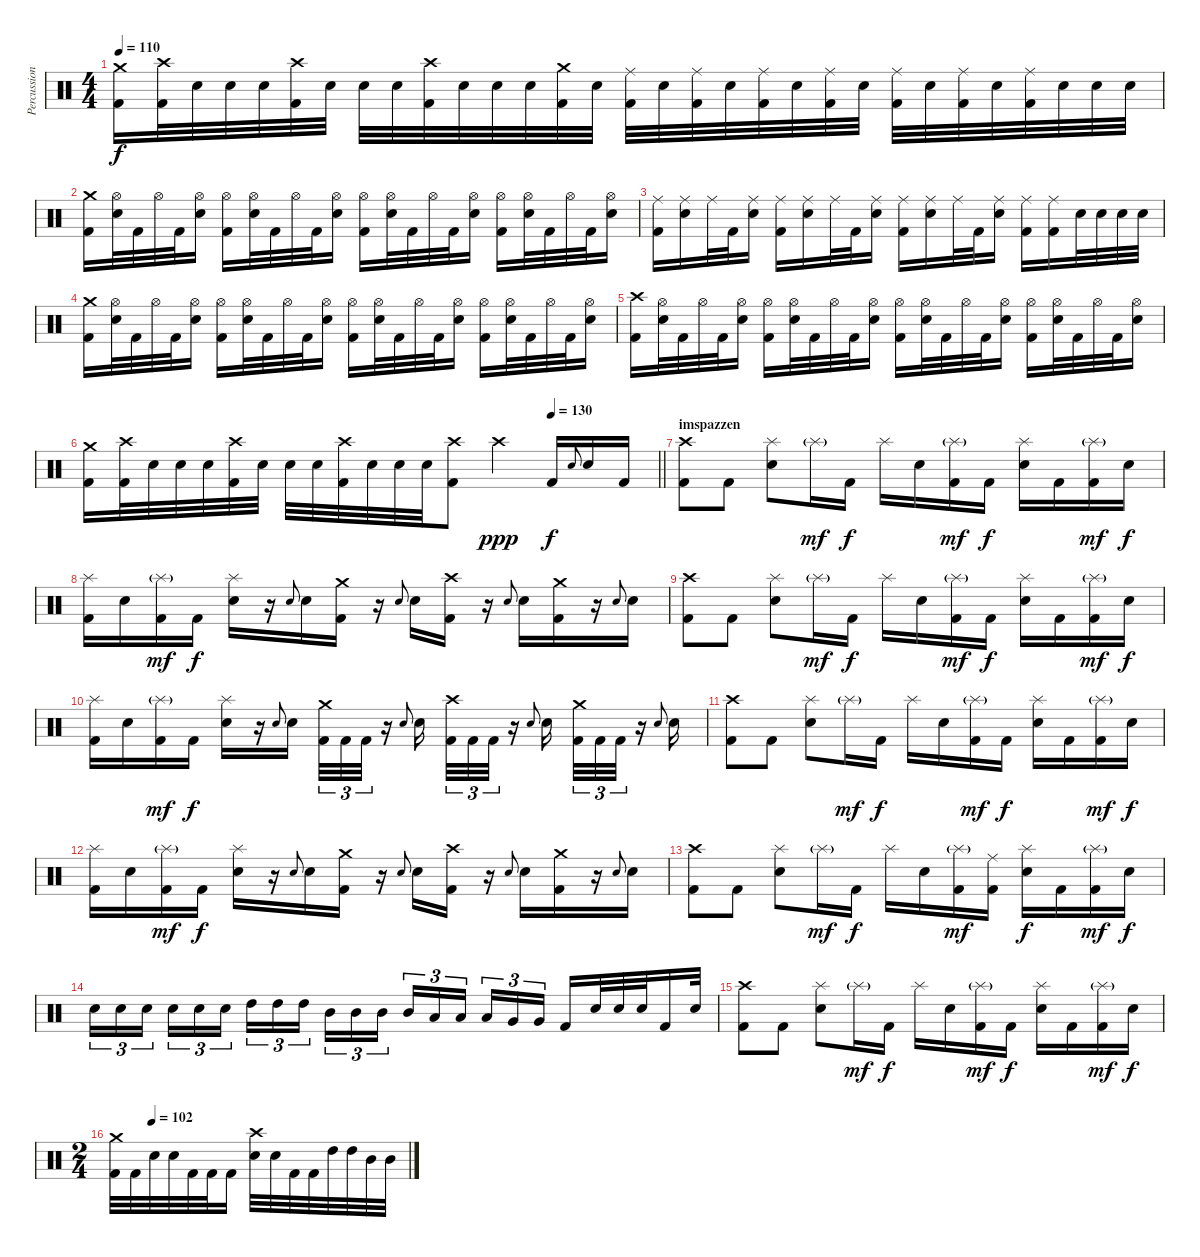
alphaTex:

\track ("Percussion" "Percussion") {instrument percussion}
\staff {score}
\articulation defaults
\ts (4 4)
\tempo 110
\clef neutral
\ks c
("Crash medium (hit)" "Kick (hit) 2").16{dy f} ("Crash high (hit)" "Kick (hit) 2").32 "Electric Snare (hit)".32 "Electric Snare (hit)".32 "Electric Snare (hit)".32 ("Crash high (hit)" "Kick (hit) 2").32 "Electric Snare (hit)".32 "Electric Snare (hit)".32 "Electric Snare (hit)".32 ("Crash high (hit)" "Kick (hit) 2").32 "Electric Snare (hit)".32 "Electric Snare (hit)".32 "Electric Snare (hit)".32 ("Crash medium (hit)" "Kick (hit) 2").32 "Electric Snare (hit)".32 ("Ride (middle)" "Kick (hit) 2").32 "Electric Snare (hit)".32 ("Ride (middle)" "Kick (hit) 2").32 "Electric Snare (hit)".32 ("Ride (middle)" "Kick (hit) 2").32 "Electric Snare (hit)".32 ("Ride (middle)" "Kick (hit) 2").32 "Electric Snare (hit)".32 ("Ride (middle)" "Kick (hit) 2").32 "Electric Snare (hit)".32 ("Ride (middle)" "Kick (hit) 2").32 "Electric Snare (hit)".32 ("Ride (middle)" "Kick (hit) 2").32 "Electric Snare (hit)".32 "Electric Snare (hit)".32 "Electric Snare (hit)".32 |
("Crash medium (hit)" "Kick (hit) 2").16 ("Hi-Hat (open)" "Electric Snare (hit)").32 "Kick (hit) 2".32 "Hi-Hat (open)".32 "Kick (hit) 2".32 ("Hi-Hat (open)" "Electric Snare (hit)").16 ("Hi-Hat (open)" "Kick (hit) 2").16 ("Hi-Hat (open)" "Electric Snare (hit)").32 "Kick (hit) 2".32 "Hi-Hat (open)".32 "Kick (hit) 2".32 ("Hi-Hat (open)" "Electric Snare (hit)").16 ("Hi-Hat (open)" "Kick (hit) 2").16 ("Hi-Hat (open)" "Electric Snare (hit)").32 "Kick (hit) 2".32 "Hi-Hat (open)".32 "Kick (hit) 2".32 ("Hi-Hat (open)" "Electric Snare (hit)").16 ("Hi-Hat (open)" "Kick (hit) 2").16 ("Hi-Hat (open)" "Electric Snare (hit)").32 "Kick (hit) 2".32 "Hi-Hat (open)".32 "Kick (hit) 2".32 ("Hi-Hat (open)" "Electric Snare (hit)").16 |
("Ride (middle)" "Kick (hit) 2").16 ("Ride (middle)" "Electric Snare (hit)").16 "Ride (middle)".32 "Kick (hit) 2".32 ("Ride (middle)" "Electric Snare (hit)").16 ("Ride (middle)" "Kick (hit) 2").16 ("Ride (middle)" "Electric Snare (hit)").16 "Ride (middle)".32 "Kick (hit) 2".32 ("Ride (middle)" "Electric Snare (hit)").16 ("Ride (middle)" "Kick (hit) 2").16 ("Ride (middle)" "Electric Snare (hit)").16 "Ride (middle)".32 "Kick (hit) 2".32 ("Ride (middle)" "Electric Snare (hit)").16 ("Ride (middle)" "Kick (hit) 2").16 ("Ride (middle)" "Kick (hit) 2").16 "Electric Snare (hit)".32 "Electric Snare (hit)".32 "Electric Snare (hit)".32 "Electric Snare (hit)".32 |
("Crash medium (hit)" "Kick (hit) 2").16 ("Hi-Hat (open)" "Electric Snare (hit)").32 "Kick (hit) 2".32 "Hi-Hat (open)".32 "Kick (hit) 2".32 ("Hi-Hat (open)" "Electric Snare (hit)").16 ("Hi-Hat (open)" "Kick (hit) 2").16 ("Hi-Hat (open)" "Electric Snare (hit)").32 "Kick (hit) 2".32 "Hi-Hat (open)".32 "Kick (hit) 2".32 ("Hi-Hat (open)" "Electric Snare (hit)").16 ("Hi-Hat (open)" "Kick (hit) 2").16 ("Hi-Hat (open)" "Electric Snare (hit)").32 "Kick (hit) 2".32 "Hi-Hat (open)".32 "Kick (hit) 2".32 ("Hi-Hat (open)" "Electric Snare (hit)").16 ("Hi-Hat (open)" "Kick (hit) 2").16 ("Hi-Hat (open)" "Electric Snare (hit)").32 "Kick (hit) 2".32 "Hi-Hat (open)".32 "Kick (hit) 2".32 ("Hi-Hat (open)" "Electric Snare (hit)").16 |
("Crash high (hit)" "Kick (hit) 2").16 ("Hi-Hat (open)" "Electric Snare (hit)").32 "Kick (hit) 2".32 "Hi-Hat (open)".32 "Kick (hit) 2".32 ("Hi-Hat (open)" "Electric Snare (hit)").16 ("Hi-Hat (open)" "Kick (hit) 2").16 ("Hi-Hat (open)" "Electric Snare (hit)").32 "Kick (hit) 2".32 "Hi-Hat (open)".32 "Kick (hit) 2".32 ("Hi-Hat (open)" "Electric Snare (hit)").16 ("Hi-Hat (open)" "Kick (hit) 2").16 ("Hi-Hat (open)" "Electric Snare (hit)").32 "Kick (hit) 2".32 "Hi-Hat (open)".32 "Kick (hit) 2".32 ("Hi-Hat (open)" "Electric Snare (hit)").16 ("Hi-Hat (open)" "Kick (hit) 2").16 ("Hi-Hat (open)" "Electric Snare (hit)").32 "Kick (hit) 2".32 "Hi-Hat (open)".32 "Kick (hit) 2".32 ("Hi-Hat (open)" "Electric Snare (hit)").16 |
\tempo (130 0.8125)
\barLineRight lightlight
("Crash medium (hit)" "Kick (hit) 2").16 ("Crash high (hit)" "Kick (hit) 2").32 "Electric Snare (hit)".32 "Electric Snare (hit)".32 "Electric Snare (hit)".32 ("Crash high (hit)" "Kick (hit) 2").32 "Electric Snare (hit)".32 "Electric Snare (hit)".32 "Electric Snare (hit)".32 ("Crash high (hit)" "Kick (hit) 2").32 "Electric Snare (hit)".32 "Electric Snare (hit)".32 "Electric Snare (hit)".32 ("Crash high (hit)" "Kick (hit) 2").8 "Crash high (hit)".4{dy ppp} "Kick (hit) 2".16{dy f} "Electric Snare (hit)".8{gr onbeat} "Electric Snare (hit)".16 "Kick (hit) 2".16 |
\section ("" "imspazzen")
("Crash high (hit)" "Kick (hit) 2").8 "Kick (hit) 2".8 ("Splash (hit)" "Electric Snare (hit)").8 "Splash (hit)"{g}.16{dy mf} "Kick (hit) 2".16{dy f} "Splash (hit)".16 "Electric Snare (hit)".16 ("Splash (hit)"{g} "Kick (hit) 2").16{dy mf} "Kick (hit) 2".16{dy f} ("Splash (hit)" "Electric Snare (hit)").16 "Kick (hit) 2".16 ("Splash (hit)"{g} "Kick (hit) 2").16{dy mf} "Electric Snare (hit)".16{dy f} |
("Splash (hit)" "Kick (hit) 2").16 "Electric Snare (hit)".16 ("Splash (hit)"{g} "Kick (hit) 2").16{dy mf} "Kick (hit) 2".16{dy f} ("Splash (hit)" "Electric Snare (hit)").16 r.16 "Electric Snare (hit)".8{gr onbeat} "Electric Snare (hit)".16 ("Crash medium (hit)" "Kick (hit) 2").16 r.16 "Electric Snare (hit)".8{gr onbeat} "Electric Snare (hit)".16 ("Crash high (hit)" "Kick (hit) 2").16 r.16 "Electric Snare (hit)".8{gr onbeat} "Electric Snare (hit)".16 ("Crash medium (hit)" "Kick (hit) 2").16 r.16 "Electric Snare (hit)".8{gr onbeat} "Electric Snare (hit)".16 |
("Crash high (hit)" "Kick (hit) 2").8 "Kick (hit) 2".8 ("Splash (hit)" "Electric Snare (hit)").8 "Splash (hit)"{g}.16{dy mf} "Kick (hit) 2".16{dy f} "Splash (hit)".16 "Electric Snare (hit)".16 ("Splash (hit)"{g} "Kick (hit) 2").16{dy mf} "Kick (hit) 2".16{dy f} ("Splash (hit)" "Electric Snare (hit)").16 "Kick (hit) 2".16 ("Splash (hit)"{g} "Kick (hit) 2").16{dy mf} "Electric Snare (hit)".16{dy f} |
("Splash (hit)" "Kick (hit) 2").16 "Electric Snare (hit)".16 ("Splash (hit)"{g} "Kick (hit) 2").16{dy mf} "Kick (hit) 2".16{dy f} ("Splash (hit)" "Electric Snare (hit)").16 r.16 "Electric Snare (hit)".8{gr onbeat} "Electric Snare (hit)".16{beam splitsecondary} ("Crash medium (hit)" "Kick (hit) 2").32{tu (3 2)} "Kick (hit) 2".32{tu (3 2)} "Kick (hit) 2".32{tu (3 2)} r.16 "Electric Snare (hit)".8{gr onbeat} "Electric Snare (hit)".16{beam splitsecondary} ("Crash high (hit)" "Kick (hit) 2").32{tu (3 2)} "Kick (hit) 2".32{tu (3 2)} "Kick (hit) 2".32{tu (3 2)} r.16 "Electric Snare (hit)".8{gr onbeat} "Electric Snare (hit)".16{beam splitsecondary} ("Crash medium (hit)" "Kick (hit) 2").32{tu (3 2)} "Kick (hit) 2".32{tu (3 2)} "Kick (hit) 2".32{tu (3 2)} r.16 "Electric Snare (hit)".8{gr onbeat} "Electric Snare (hit)".16 |
("Crash high (hit)" "Kick (hit) 2").8 "Kick (hit) 2".8 ("Splash (hit)" "Electric Snare (hit)").8 "Splash (hit)"{g}.16{dy mf} "Kick (hit) 2".16{dy f} "Splash (hit)".16 "Electric Snare (hit)".16 ("Splash (hit)"{g} "Kick (hit) 2").16{dy mf} "Kick (hit) 2".16{dy f} ("Splash (hit)" "Electric Snare (hit)").16 "Kick (hit) 2".16 ("Splash (hit)"{g} "Kick (hit) 2").16{dy mf} "Electric Snare (hit)".16{dy f} |
("Splash (hit)" "Kick (hit) 2").16 "Electric Snare (hit)".16 ("Splash (hit)"{g} "Kick (hit) 2").16{dy mf} "Kick (hit) 2".16{dy f} ("Splash (hit)" "Electric Snare (hit)").16 r.16 "Electric Snare (hit)".8{gr onbeat} "Electric Snare (hit)".16 ("Crash medium (hit)" "Kick (hit) 2").16 r.16 "Electric Snare (hit)".8{gr onbeat} "Electric Snare (hit)".16 ("Crash high (hit)" "Kick (hit) 2").16 r.16 "Electric Snare (hit)".8{gr onbeat} "Electric Snare (hit)".16 ("Crash medium (hit)" "Kick (hit) 2").16 r.16 "Electric Snare (hit)".8{gr onbeat} "Electric Snare (hit)".16 |
("Crash high (hit)" "Kick (hit) 2").8 "Kick (hit) 2".8 ("Splash (hit)" "Electric Snare (hit)").8 "Splash (hit)"{g}.16{dy mf} "Kick (hit) 2".16{dy f} "Splash (hit)".16 "Electric Snare (hit)".16 ("Splash (hit)"{g} "Kick (hit) 2").16{dy mf} ("Ride (middle)" "Kick (hit) 2").16 ("Splash (hit)" "Electric Snare (hit)").16{dy f} "Kick (hit) 2".16 ("Splash (hit)"{g} "Kick (hit) 2").16{dy mf} "Electric Snare (hit)".16{dy f} |
"Electric Snare (hit)".16{tu (3 2)} "Electric Snare (hit)".16{tu (3 2)} "Electric Snare (hit)".16{tu (3 2) beam splitsecondary} "Electric Snare (hit)".16{tu (3 2)} "Electric Snare (hit)".16{tu (3 2)} "Electric Snare (hit)".16{tu (3 2)} "High Tom (hit)".16{tu (3 2)} "High Tom (hit)".16{tu (3 2)} "High Tom (hit)".16{tu (3 2) beam splitsecondary} "Mid Tom (hit)".16{tu (3 2)} "Mid Tom (hit)".16{tu (3 2)} "Mid Tom (hit)".16{tu (3 2)} "Mid Tom (hit)".16{tu (3 2)} "Low Tom (hit)".16{tu (3 2)} "Low Tom (hit)".16{tu (3 2) beam splitsecondary} "Low Tom (hit)".16{tu (3 2)} "Very Low Tom (hit)".16{tu (3 2)} "Very Low Tom (hit)".16{tu (3 2)} "Kick (hit) 2".16 "Electric Snare (hit)".32 "Electric Snare (hit)".32 "Electric Snare (hit)".32 "Kick (hit) 2".16 "Electric Snare (hit)".32 |
("Crash high (hit)" "Kick (hit) 2").8 "Kick (hit) 2".8 ("Splash (hit)" "Electric Snare (hit)").8 "Splash (hit)"{g}.16{dy mf} "Kick (hit) 2".16{dy f} "Splash (hit)".16 "Electric Snare (hit)".16 ("Splash (hit)"{g} "Kick (hit) 2").16{dy mf} "Kick (hit) 2".16{dy f} ("Splash (hit)" "Electric Snare (hit)").16 "Kick (hit) 2".16 ("Splash (hit)"{g} "Kick (hit) 2").16{dy mf} "Electric Snare (hit)".16{dy f} |
\ts (2 4)
\tempo (102 0.125)
("Crash medium (hit)" "Kick (hit) 2").32 "Kick (hit) 2".32 "Electric Snare (hit)".32 "Electric Snare (hit)".32 "Kick (hit) 2".32 "Kick (hit) 2".32 "Kick (hit) 2".16 ("Crash high (hit)" "Electric Snare (hit)").32 "Electric Snare (hit)".32 "Kick (hit) 2".32 "Kick (hit) 2".32 "High Tom (hit)".32 "High Tom (hit)".32 "Mid Tom (hit)".32 "Mid Tom (hit)".32
